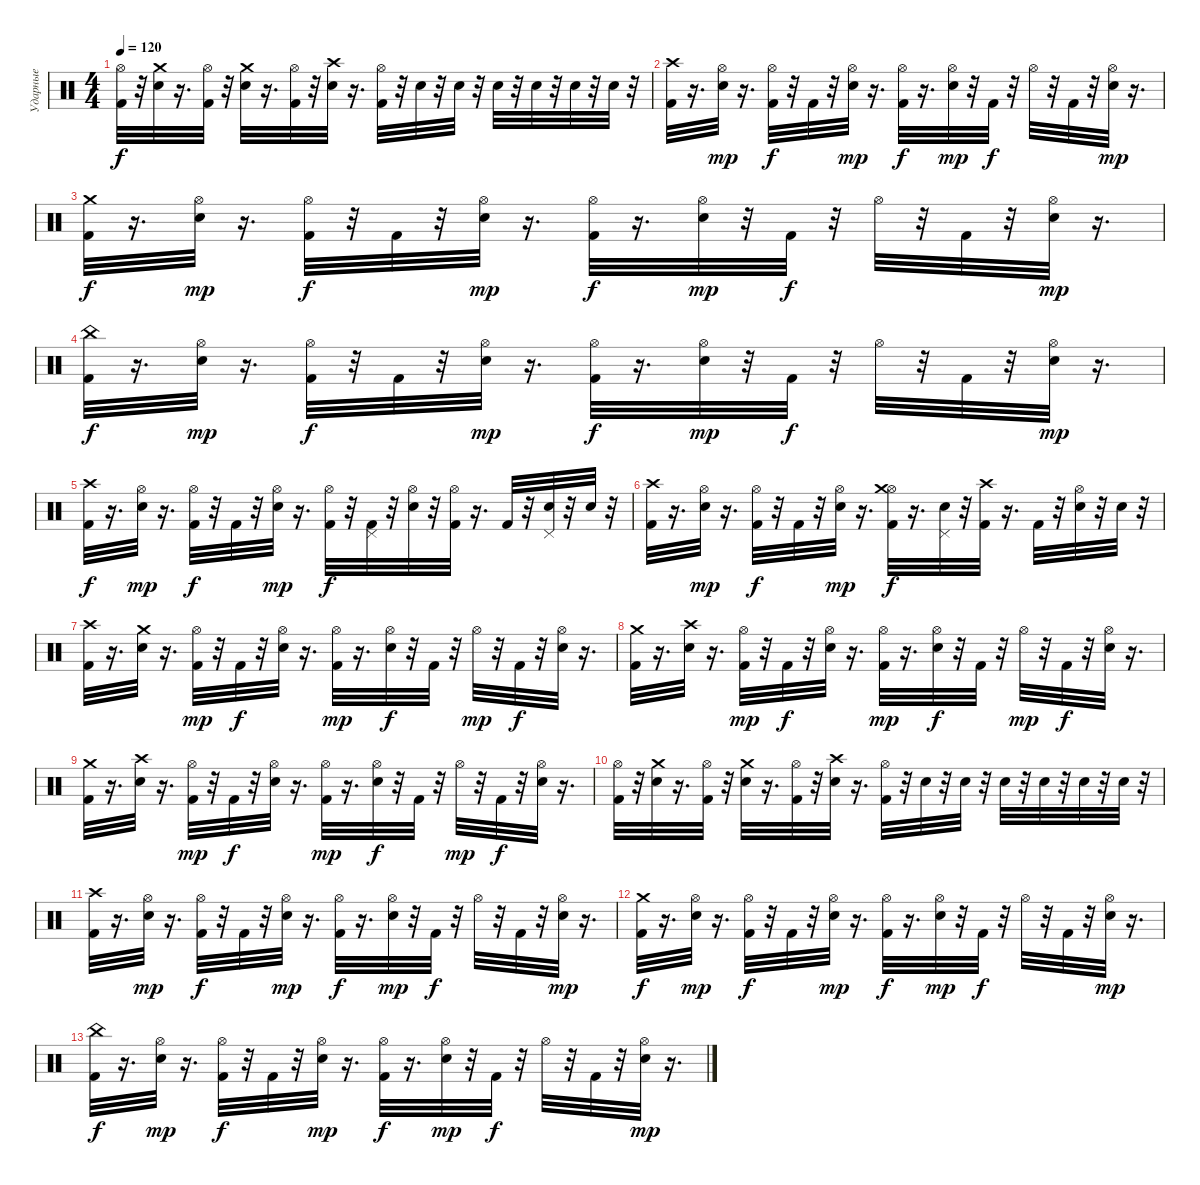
\track ("Ударные" "Ударные") {instrument percussion}
\staff {score}
\articulation defaults
\ts (4 4)
\tempo 120
\clef neutral
\ks c
("Hi-Hat (open)" "Kick (hit) 2").32{dy f} r.32 ("Crash medium (hit)" "Electric Snare (hit)").32 r.16{d} ("Hi-Hat (open)" "Kick (hit) 2").32 r.32 ("Crash medium (hit)" "Electric Snare (hit)").32 r.16{d} ("Hi-Hat (open)" "Kick (hit) 2").32 r.32 ("Crash high (hit)" "Electric Snare (hit)").32 r.16{d} ("Hi-Hat (open)" "Kick (hit) 2").32 r.32 "Electric Snare (hit)".32 r.32 "Electric Snare (hit)".32 r.32 "Electric Snare (hit)".32 r.32 "Electric Snare (hit)".32 r.32 "Electric Snare (hit)".32 r.32 "Electric Snare (hit)".32 r.32 |
("Crash high (hit)" "Kick (hit) 2").32 r.16{d} ("Hi-Hat (open)" "Electric Snare (hit)").32{dy mp} r.16{d} ("Hi-Hat (open)" "Kick (hit) 2").32{dy f} r.32 "Kick (hit) 2".32 r.32 ("Hi-Hat (open)" "Electric Snare (hit)").32{dy mp} r.16{d} ("Hi-Hat (open)" "Kick (hit) 2").32{dy f} r.16{d} ("Hi-Hat (open)" "Electric Snare (hit)").32{dy mp} r.32 "Kick (hit) 2".32{dy f} r.32 "Hi-Hat (open)".32 r.32 "Kick (hit) 2".32 r.32 ("Hi-Hat (open)" "Electric Snare (hit)").32{dy mp} r.16{d} |
("Crash medium (hit)" "Kick (hit) 2").32{dy f} r.16{d} ("Hi-Hat (open)" "Electric Snare (hit)").32{dy mp} r.16{d} ("Hi-Hat (open)" "Kick (hit) 2").32{dy f} r.32 "Kick (hit) 2".32 r.32 ("Hi-Hat (open)" "Electric Snare (hit)").32{dy mp} r.16{d} ("Hi-Hat (open)" "Kick (hit) 2").32{dy f} r.16{d} ("Hi-Hat (open)" "Electric Snare (hit)").32{dy mp} r.32 "Kick (hit) 2".32{dy f} r.32 "Hi-Hat (open)".32 r.32 "Kick (hit) 2".32 r.32 ("Hi-Hat (open)" "Electric Snare (hit)").32{dy mp} r.16{d} |
("China (hit)" "Kick (hit) 2").32{dy f} r.16{d} ("Hi-Hat (open)" "Electric Snare (hit)").32{dy mp} r.16{d} ("Hi-Hat (open)" "Kick (hit) 2").32{dy f} r.32 "Kick (hit) 2".32 r.32 ("Hi-Hat (open)" "Electric Snare (hit)").32{dy mp} r.16{d} ("Hi-Hat (open)" "Kick (hit) 2").32{dy f} r.16{d} ("Hi-Hat (open)" "Electric Snare (hit)").32{dy mp} r.32 "Kick (hit) 2".32{dy f} r.32 "Hi-Hat (open)".32 r.32 "Kick (hit) 2".32 r.32 ("Hi-Hat (open)" "Electric Snare (hit)").32{dy mp} r.16{d} |
("Crash high (hit)" "Kick (hit) 2").32{dy f} r.16{d} ("Hi-Hat (open)" "Electric Snare (hit)").32{dy mp} r.16{d} ("Hi-Hat (open)" "Kick (hit) 2").32{dy f} r.32 "Kick (hit) 2".32 r.32 ("Hi-Hat (open)" "Electric Snare (hit)").32{dy mp} r.16{d} ("Hi-Hat (open)" "Kick (hit) 2").32{dy f} r.32 ("Kick (hit) 2" "Pedal Hi-Hat (hit)").32 r.32 ("Hi-Hat (open)" "Electric Snare (hit)").32 r.32 ("Kick (hit) 2" "Hi-Hat (open)").32 r.16{d} "Kick (hit) 2".32 r.32 ("Pedal Hi-Hat (hit)" "Electric Snare (hit)").32 r.32 "Electric Snare (hit)".32 r.32 |
("Crash high (hit)" "Kick (hit) 2").32 r.16{d} ("Hi-Hat (open)" "Electric Snare (hit)").32{dy mp} r.16{d} ("Hi-Hat (open)" "Kick (hit) 2").32{dy f} r.32 "Kick (hit) 2".32 r.32 ("Hi-Hat (open)" "Electric Snare (hit)").32{dy mp} r.16{d} ("Hi-Hat (open)" "Crash medium (hit)" "Kick (hit) 2").32{dy f} r.16{d} ("Pedal Hi-Hat (hit)" "Electric Snare (hit)").32 r.32 ("Crash high (hit)" "Kick (hit) 2").32 r.16{d} "Kick (hit) 2".32 r.32 ("Hi-Hat (open)" "Electric Snare (hit)").32 r.32 "Electric Snare (hit)".32 r.32 |
("Crash high (hit)" "Kick (hit) 2").32 r.16{d} ("Crash medium (hit)" "Electric Snare (hit)").32 r.16{d} ("Hi-Hat (open)" "Kick (hit) 2").32{dy mp} r.32 "Kick (hit) 2".32{dy f} r.32 ("Hi-Hat (open)" "Electric Snare (hit)").32 r.16{d} ("Hi-Hat (open)" "Kick (hit) 2").32{dy mp} r.16{d} ("Hi-Hat (open)" "Electric Snare (hit)").32{dy f} r.32 "Kick (hit) 2".32 r.32 "Hi-Hat (open)".32{dy mp} r.32 "Kick (hit) 2".32{dy f} r.32 ("Hi-Hat (open)" "Electric Snare (hit)").32 r.16{d} |
("Crash medium (hit)" "Kick (hit) 2").32 r.16{d} ("Electric Snare (hit)" "Crash high (hit)").32 r.16{d} ("Hi-Hat (open)" "Kick (hit) 2").32{dy mp} r.32 "Kick (hit) 2".32{dy f} r.32 ("Hi-Hat (open)" "Electric Snare (hit)").32 r.16{d} ("Hi-Hat (open)" "Kick (hit) 2").32{dy mp} r.16{d} ("Hi-Hat (open)" "Electric Snare (hit)").32{dy f} r.32 "Kick (hit) 2".32 r.32 "Hi-Hat (open)".32{dy mp} r.32 "Kick (hit) 2".32{dy f} r.32 ("Hi-Hat (open)" "Electric Snare (hit)").32 r.16{d} |
("Kick (hit) 2" "Crash medium (hit)").32 r.16{d} ("Electric Snare (hit)" "Crash high (hit)").32 r.16{d} ("Hi-Hat (open)" "Kick (hit) 2").32{dy mp} r.32 "Kick (hit) 2".32{dy f} r.32 ("Electric Snare (hit)" "Hi-Hat (open)").32 r.16{d} ("Hi-Hat (open)" "Kick (hit) 2").32{dy mp} r.16{d} ("Electric Snare (hit)" "Hi-Hat (open)").32{dy f} r.32 "Kick (hit) 2".32 r.32 "Hi-Hat (open)".32{dy mp} r.32 "Kick (hit) 2".32{dy f} r.32 ("Electric Snare (hit)" "Hi-Hat (open)").32 r.16{d} |
("Hi-Hat (open)" "Kick (hit) 2").32 r.32 ("Crash medium (hit)" "Electric Snare (hit)").32 r.16{d} ("Hi-Hat (open)" "Kick (hit) 2").32 r.32 ("Crash medium (hit)" "Electric Snare (hit)").32 r.16{d} ("Hi-Hat (open)" "Kick (hit) 2").32 r.32 ("Crash high (hit)" "Electric Snare (hit)").32 r.16{d} ("Hi-Hat (open)" "Kick (hit) 2").32 r.32 "Electric Snare (hit)".32 r.32 "Electric Snare (hit)".32 r.32 "Electric Snare (hit)".32 r.32 "Electric Snare (hit)".32 r.32 "Electric Snare (hit)".32 r.32 "Electric Snare (hit)".32 r.32 |
("Crash high (hit)" "Kick (hit) 2").32 r.16{d} ("Hi-Hat (open)" "Electric Snare (hit)").32{dy mp} r.16{d} ("Hi-Hat (open)" "Kick (hit) 2").32{dy f} r.32 "Kick (hit) 2".32 r.32 ("Hi-Hat (open)" "Electric Snare (hit)").32{dy mp} r.16{d} ("Hi-Hat (open)" "Kick (hit) 2").32{dy f} r.16{d} ("Hi-Hat (open)" "Electric Snare (hit)").32{dy mp} r.32 "Kick (hit) 2".32{dy f} r.32 "Hi-Hat (open)".32 r.32 "Kick (hit) 2".32 r.32 ("Hi-Hat (open)" "Electric Snare (hit)").32{dy mp} r.16{d} |
("Crash medium (hit)" "Kick (hit) 2").32{dy f} r.16{d} ("Hi-Hat (open)" "Electric Snare (hit)").32{dy mp} r.16{d} ("Hi-Hat (open)" "Kick (hit) 2").32{dy f} r.32 "Kick (hit) 2".32 r.32 ("Hi-Hat (open)" "Electric Snare (hit)").32{dy mp} r.16{d} ("Hi-Hat (open)" "Kick (hit) 2").32{dy f} r.16{d} ("Hi-Hat (open)" "Electric Snare (hit)").32{dy mp} r.32 "Kick (hit) 2".32{dy f} r.32 "Hi-Hat (open)".32 r.32 "Kick (hit) 2".32 r.32 ("Hi-Hat (open)" "Electric Snare (hit)").32{dy mp} r.16{d} |
("China (hit)" "Kick (hit) 2").32{dy f} r.16{d} ("Hi-Hat (open)" "Electric Snare (hit)").32{dy mp} r.16{d} ("Hi-Hat (open)" "Kick (hit) 2").32{dy f} r.32 "Kick (hit) 2".32 r.32 ("Hi-Hat (open)" "Electric Snare (hit)").32{dy mp} r.16{d} ("Hi-Hat (open)" "Kick (hit) 2").32{dy f} r.16{d} ("Hi-Hat (open)" "Electric Snare (hit)").32{dy mp} r.32 "Kick (hit) 2".32{dy f} r.32 "Hi-Hat (open)".32 r.32 "Kick (hit) 2".32 r.32 ("Hi-Hat (open)" "Electric Snare (hit)").32{dy mp} r.16{d}
